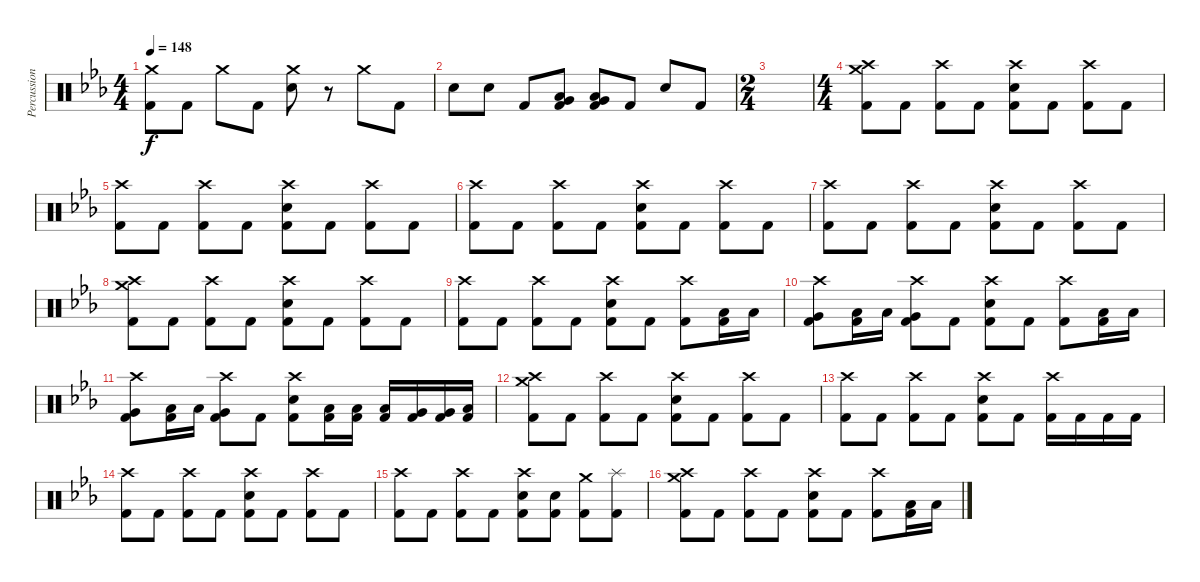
\track ("Percussion" "Percussion") {instrument percussion}
\staff {score}
\articulation defaults
\ts (4 4)
\tempo 148
\clef neutral
\ks cminor
("Crash medium (hit)" "Kick (hit) 2").8{dy f} "Kick (hit) 2".8 "Crash medium (hit)".8 "Kick (hit) 2".8 ("Crash medium (hit)" "Electric Snare (hit)").8 r.8 "Crash medium (hit)".8 "Kick (hit) 2".8 |
"Electric Snare (hit)".8 "Electric Snare (hit)".8 "Kick (hit) 2".8 ("Low Tom (hit)" "Very Low Tom (hit)" "Kick (hit) 2").8 ("Low Tom (hit)" "Very Low Tom (hit)" "Kick (hit) 2").8 "Kick (hit) 2".8 "Electric Snare (hit)".8 "Kick (hit) 2".8 |
\ts (2 4)
|
\ts (4 4)
("Crash medium (hit)" "Crash high (hit)" "Kick (hit) 2").8 "Kick (hit) 2".8 ("Crash high (hit)" "Kick (hit) 2").8 "Kick (hit) 2".8 ("Crash high (hit)" "Electric Snare (hit)" "Kick (hit) 2").8 "Kick (hit) 2".8 ("Crash high (hit)" "Kick (hit) 2").8 "Kick (hit) 2".8 |
("Crash high (hit)" "Kick (hit) 2").8 "Kick (hit) 2".8 ("Crash high (hit)" "Kick (hit) 2").8 "Kick (hit) 2".8 ("Crash high (hit)" "Electric Snare (hit)" "Kick (hit) 2").8 "Kick (hit) 2".8 ("Crash high (hit)" "Kick (hit) 2").8 "Kick (hit) 2".8 |
("Crash high (hit)" "Kick (hit) 2").8 "Kick (hit) 2".8 ("Crash high (hit)" "Kick (hit) 2").8 "Kick (hit) 2".8 ("Crash high (hit)" "Electric Snare (hit)" "Kick (hit) 2").8 "Kick (hit) 2".8 ("Crash high (hit)" "Kick (hit) 2").8 "Kick (hit) 2".8 |
("Crash high (hit)" "Kick (hit) 2").8 "Kick (hit) 2".8 ("Crash high (hit)" "Kick (hit) 2").8 "Kick (hit) 2".8 ("Crash high (hit)" "Electric Snare (hit)" "Kick (hit) 2").8 "Kick (hit) 2".8 ("Crash high (hit)" "Kick (hit) 2").8 "Kick (hit) 2".8 |
("Crash medium (hit)" "Crash high (hit)" "Kick (hit) 2").8 "Kick (hit) 2".8 ("Crash high (hit)" "Kick (hit) 2").8 "Kick (hit) 2".8 ("Crash high (hit)" "Electric Snare (hit)" "Kick (hit) 2").8 "Kick (hit) 2".8 ("Crash high (hit)" "Kick (hit) 2").8 "Kick (hit) 2".8 |
("Crash high (hit)" "Kick (hit) 2").8 "Kick (hit) 2".8 ("Crash high (hit)" "Kick (hit) 2").8 "Kick (hit) 2".8 ("Crash high (hit)" "Electric Snare (hit)" "Kick (hit) 2").8 "Kick (hit) 2".8 ("Crash high (hit)" "Kick (hit) 2").8 ("Low Tom (hit)" "Kick (hit) 2").16 "Low Tom (hit)".16 |
("Crash high (hit)" "Very Low Tom (hit)" "Kick (hit) 2").8 ("Low Tom (hit)" "Kick (hit) 2").16 "Low Tom (hit)".16 ("Crash high (hit)" "Very Low Tom (hit)" "Kick (hit) 2").8 "Kick (hit) 2".8 ("Crash high (hit)" "Electric Snare (hit)" "Kick (hit) 2").8 "Kick (hit) 2".8 ("Crash high (hit)" "Kick (hit) 2").8 ("Low Tom (hit)" "Kick (hit) 2").16 "Low Tom (hit)".16 |
("Crash high (hit)" "Very Low Tom (hit)" "Kick (hit) 2").8 ("Low Tom (hit)" "Kick (hit) 2").16 "Low Tom (hit)".16 ("Crash high (hit)" "Very Low Tom (hit)" "Kick (hit) 2").8 "Kick (hit) 2".8 ("Crash high (hit)" "Electric Snare (hit)" "Kick (hit) 2").8 ("Low Tom (hit)" "Kick (hit) 2").16 ("Low Tom (hit)" "Kick (hit) 2").16 ("Low Tom (hit)" "Kick (hit) 2").16 ("Very Low Tom (hit)" "Kick (hit) 2").16 ("Very Low Tom (hit)" "Kick (hit) 2").16 ("Low Floor Tom (hit)" "Kick (hit) 2").16 |
("Crash medium (hit)" "Crash high (hit)" "Kick (hit) 2").8 "Kick (hit) 2".8 ("Crash high (hit)" "Kick (hit) 2").8 "Kick (hit) 2".8 ("Crash high (hit)" "Electric Snare (hit)" "Kick (hit) 2").8 "Kick (hit) 2".8 ("Crash high (hit)" "Kick (hit) 2").8 "Kick (hit) 2".8 |
("Crash high (hit)" "Kick (hit) 2").8 "Kick (hit) 2".8 ("Crash high (hit)" "Kick (hit) 2").8 "Kick (hit) 2".8 ("Crash high (hit)" "Electric Snare (hit)" "Kick (hit) 2").8 "Kick (hit) 2".8 ("Crash high (hit)" "Kick (hit) 2").16 "Kick (hit) 2".16 "Kick (hit) 2".16 "Kick (hit) 2".16 |
("Crash high (hit)" "Kick (hit) 2").8 "Kick (hit) 2".8 ("Crash high (hit)" "Kick (hit) 2").8 "Kick (hit) 2".8 ("Crash high (hit)" "Electric Snare (hit)" "Kick (hit) 2").8 "Kick (hit) 2".8 ("Crash high (hit)" "Kick (hit) 2").8 "Kick (hit) 2".8 |
("Crash high (hit)" "Kick (hit) 2").8 "Kick (hit) 2".8 ("Crash high (hit)" "Kick (hit) 2").8 "Kick (hit) 2".8 ("Crash high (hit)" "Electric Snare (hit)" "Kick (hit) 2").8 ("Electric Snare (hit)" "Kick (hit) 2").8 ("Crash medium (hit)" "Kick (hit) 2").8 ("Splash (hit)" "Kick (hit) 2").8 |
("Crash medium (hit)" "Crash high (hit)" "Kick (hit) 2").8 "Kick (hit) 2".8 ("Crash high (hit)" "Kick (hit) 2").8 "Kick (hit) 2".8 ("Crash high (hit)" "Electric Snare (hit)" "Kick (hit) 2").8 "Kick (hit) 2".8 ("Crash high (hit)" "Kick (hit) 2").8 ("Low Tom (hit)" "Kick (hit) 2").16 "Low Tom (hit)".16
